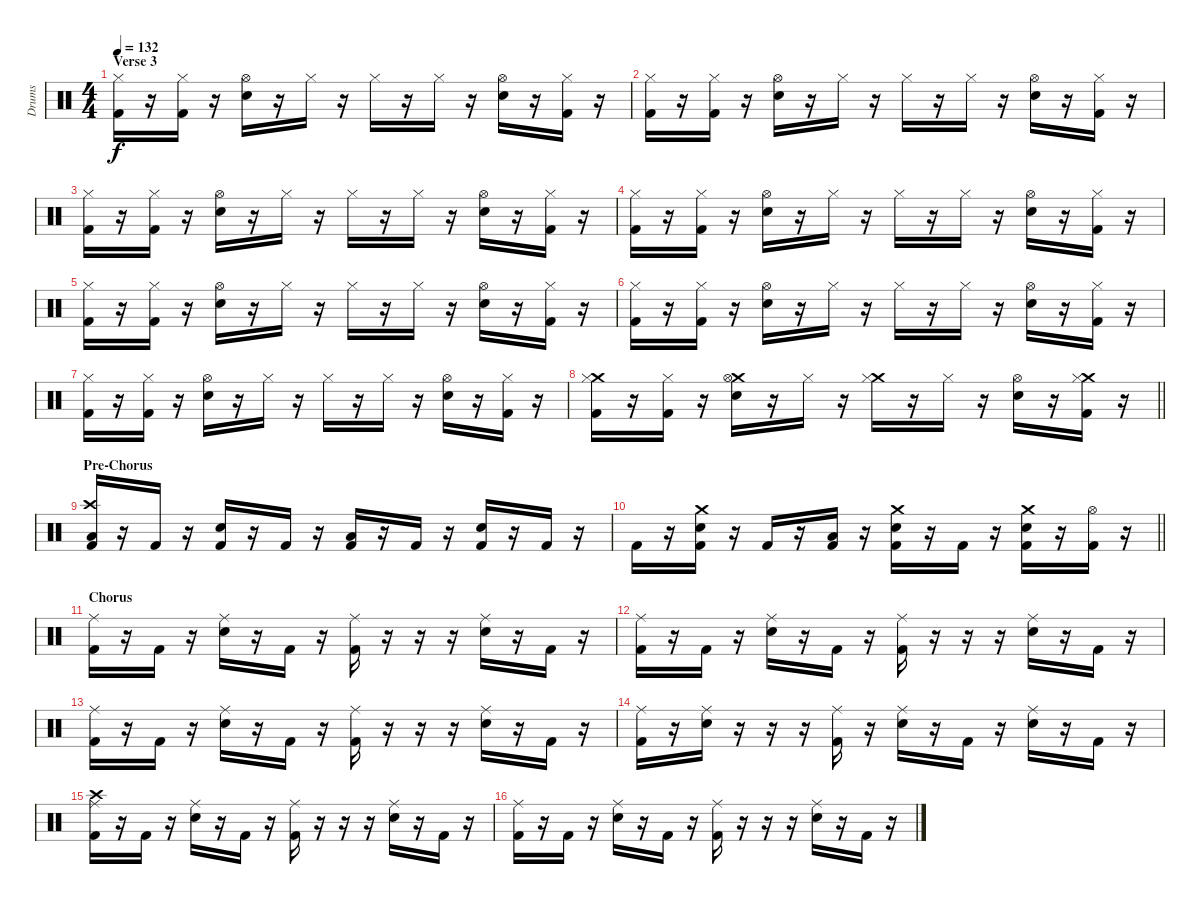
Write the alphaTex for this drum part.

\track ("Drums" "Drums") {instrument percussion}
\staff {score}
\articulation defaults
\ts (4 4)
\section ("" "Verse 3")
\tempo 132
\clef neutral
\ks c
("Hi-Hat (closed)" "Kick (hit) 2").16{dy f} r.16 ("Hi-Hat (closed)" "Kick (hit) 2").16 r.16 ("Hi-Hat (open)" "Snare (hit) 2").16 r.16 "Hi-Hat (closed)".16 r.16 "Hi-Hat (closed)".16 r.16 "Hi-Hat (closed)".16 r.16 ("Hi-Hat (open)" "Snare (hit) 2").16 r.16 ("Hi-Hat (closed)" "Kick (hit) 2").16 r.16 |
("Hi-Hat (closed)" "Kick (hit) 2").16 r.16 ("Hi-Hat (closed)" "Kick (hit) 2").16 r.16 ("Hi-Hat (open)" "Snare (hit) 2").16 r.16 "Hi-Hat (closed)".16 r.16 "Hi-Hat (closed)".16 r.16 "Hi-Hat (closed)".16 r.16 ("Hi-Hat (open)" "Snare (hit) 2").16 r.16 ("Hi-Hat (closed)" "Kick (hit) 2").16 r.16 |
("Hi-Hat (closed)" "Kick (hit) 2").16 r.16 ("Hi-Hat (closed)" "Kick (hit) 2").16 r.16 ("Hi-Hat (open)" "Snare (hit) 2").16 r.16 "Hi-Hat (closed)".16 r.16 "Hi-Hat (closed)".16 r.16 "Hi-Hat (closed)".16 r.16 ("Hi-Hat (open)" "Snare (hit) 2").16 r.16 ("Hi-Hat (closed)" "Kick (hit) 2").16 r.16 |
("Hi-Hat (closed)" "Kick (hit) 2").16 r.16 ("Hi-Hat (closed)" "Kick (hit) 2").16 r.16 ("Hi-Hat (open)" "Snare (hit) 2").16 r.16 "Hi-Hat (closed)".16 r.16 "Hi-Hat (closed)".16 r.16 "Hi-Hat (closed)".16 r.16 ("Hi-Hat (open)" "Snare (hit) 2").16 r.16 ("Hi-Hat (closed)" "Kick (hit) 2").16 r.16 |
("Hi-Hat (closed)" "Kick (hit) 2").16 r.16 ("Hi-Hat (closed)" "Kick (hit) 2").16 r.16 ("Hi-Hat (open)" "Snare (hit) 2").16 r.16 "Hi-Hat (closed)".16 r.16 "Hi-Hat (closed)".16 r.16 "Hi-Hat (closed)".16 r.16 ("Hi-Hat (open)" "Snare (hit) 2").16 r.16 ("Hi-Hat (closed)" "Kick (hit) 2").16 r.16 |
("Hi-Hat (closed)" "Kick (hit) 2").16 r.16 ("Hi-Hat (closed)" "Kick (hit) 2").16 r.16 ("Hi-Hat (open)" "Snare (hit) 2").16 r.16 "Hi-Hat (closed)".16 r.16 "Hi-Hat (closed)".16 r.16 "Hi-Hat (closed)".16 r.16 ("Hi-Hat (open)" "Snare (hit) 2").16 r.16 ("Hi-Hat (closed)" "Kick (hit) 2").16 r.16 |
("Hi-Hat (closed)" "Kick (hit) 2").16 r.16 ("Hi-Hat (closed)" "Kick (hit) 2").16 r.16 ("Hi-Hat (open)" "Snare (hit) 2").16 r.16 "Hi-Hat (closed)".16 r.16 "Hi-Hat (closed)".16 r.16 "Hi-Hat (closed)".16 r.16 ("Hi-Hat (open)" "Snare (hit) 2").16 r.16 ("Hi-Hat (closed)" "Kick (hit) 2").16 r.16 |
\barLineRight lightlight
("Crash medium (hit)" "Hi-Hat (closed)" "Kick (hit) 2").16 r.16 ("Hi-Hat (closed)" "Kick (hit) 2").16 r.16 ("Crash medium (hit)" "Hi-Hat (open)" "Snare (hit) 2").16 r.16 "Hi-Hat (closed)".16 r.16 ("Crash medium (hit)" "Hi-Hat (closed)").16 r.16 "Hi-Hat (closed)".16 r.16 ("Hi-Hat (open)" "Snare (hit) 2").16 r.16 ("Crash medium (hit)" "Hi-Hat (closed)" "Kick (hit) 2").16 r.16 |
\section ("" "Pre-Chorus")
("Crash high (hit)" "Low Tom (hit)" "Kick (hit) 2").16 r.16 "Kick (hit) 2".16 r.16 ("Snare (hit) 2" "Kick (hit) 2").16 r.16 "Kick (hit) 2".16 r.16 ("Low Tom (hit)" "Kick (hit) 2").16 r.16 "Kick (hit) 2".16 r.16 ("Snare (hit) 2" "Kick (hit) 2").16 r.16 "Kick (hit) 2".16 r.16 |
\barLineRight lightlight "Kick (hit) 2".16
r.16 ("Crash medium (hit)" "Snare (hit) 2" "Kick (hit) 2").16 r.16 "Kick (hit) 2".16 r.16 ("Low Tom (hit)" "Kick (hit) 2").16 r.16 ("Crash medium (hit)" "Snare (hit) 2" "Kick (hit) 2").16 r.16 "Kick (hit) 2".16 r.16 ("Crash medium (hit)" "Snare (hit) 2" "Kick (hit) 2").16 r.16 ("Hi-Hat (open)" "Kick (hit) 2").16 r.16 |
\section ("" "Chorus")
("Ride (middle)" "Kick (hit) 2").16 r.16 "Kick (hit) 2".16 r.16 ("Ride (middle)" "Snare (hit) 2").16 r.16 "Kick (hit) 2".16 r.16 ("Ride (middle)" "Kick (hit) 2").16 r.16 r.16 r.16 ("Ride (middle)" "Snare (hit) 2").16 r.16 "Kick (hit) 2".16 r.16 |
("Ride (middle)" "Kick (hit) 2").16 r.16 "Kick (hit) 2".16 r.16 ("Ride (middle)" "Snare (hit) 2").16 r.16 "Kick (hit) 2".16 r.16 ("Ride (middle)" "Kick (hit) 2").16 r.16 r.16 r.16 ("Ride (middle)" "Snare (hit) 2").16 r.16 "Kick (hit) 2".16 r.16 |
("Ride (middle)" "Kick (hit) 2").16 r.16 "Kick (hit) 2".16 r.16 ("Ride (middle)" "Snare (hit) 2").16 r.16 "Kick (hit) 2".16 r.16 ("Ride (middle)" "Kick (hit) 2").16 r.16 r.16 r.16 ("Ride (middle)" "Snare (hit) 2").16 r.16 "Kick (hit) 2".16 r.16 |
("Ride (middle)" "Kick (hit) 2").16 r.16 ("Ride (middle)" "Snare (hit) 2").16 r.16 r.16 r.16 ("Ride (middle)" "Kick (hit) 2").16 r.16 ("Ride (middle)" "Snare (hit) 2").16 r.16 "Kick (hit) 2".16 r.16 ("Ride (middle)" "Snare (hit) 2").16 r.16 "Kick (hit) 2".16 r.16 |
("Crash high (hit)" "Ride (middle)" "Kick (hit) 2").16 r.16 "Kick (hit) 2".16 r.16 ("Ride (middle)" "Snare (hit) 2").16 r.16 "Kick (hit) 2".16 r.16 ("Ride (middle)" "Kick (hit) 2").16 r.16 r.16 r.16 ("Ride (middle)" "Snare (hit) 2").16 r.16 "Kick (hit) 2".16 r.16 |
("Ride (middle)" "Kick (hit) 2").16 r.16 "Kick (hit) 2".16 r.16 ("Ride (middle)" "Snare (hit) 2").16 r.16 "Kick (hit) 2".16 r.16 ("Ride (middle)" "Kick (hit) 2").16 r.16 r.16 r.16 ("Ride (middle)" "Snare (hit) 2").16 r.16 "Kick (hit) 2".16 r.16
